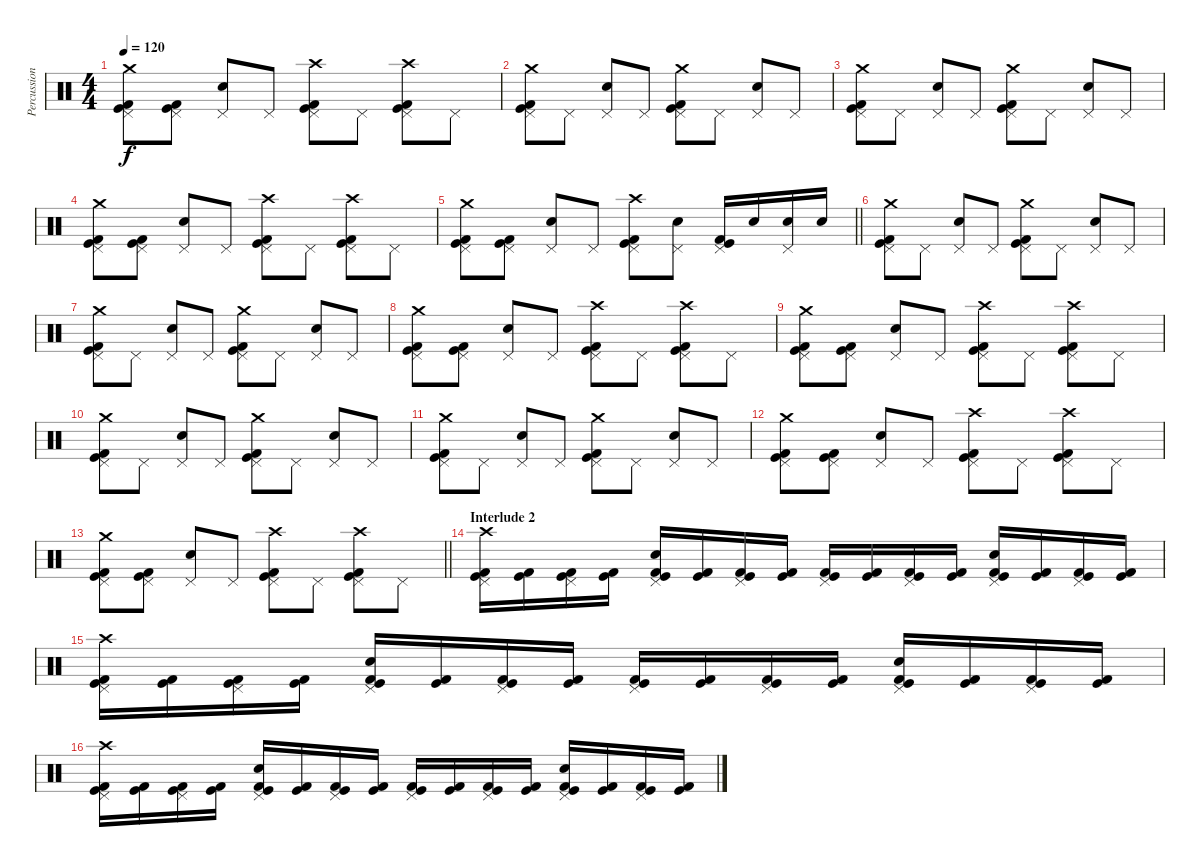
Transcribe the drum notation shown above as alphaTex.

\track ("Percussion" "Percussion") {instrument percussion}
\staff {score}
\articulation defaults
\ts (4 4)
\tempo 120
\clef neutral
\ks c
("Crash medium (hit)" "Pedal Hi-Hat (hit)" "Kick (hit)" "Kick (hit) 2").8{dy f} ("Pedal Hi-Hat (hit)" "Kick (hit)" "Kick (hit) 2").8 ("Pedal Hi-Hat (hit)" "Electric Snare (hit)").8 "Pedal Hi-Hat (hit)".8 ("Crash high (hit)" "Pedal Hi-Hat (hit)" "Kick (hit)" "Kick (hit) 2").8 "Pedal Hi-Hat (hit)".8 ("Crash high (hit)" "Pedal Hi-Hat (hit)" "Kick (hit)" "Kick (hit) 2").8 "Pedal Hi-Hat (hit)".8 |
("Crash medium (hit)" "Pedal Hi-Hat (hit)" "Kick (hit)" "Kick (hit) 2").8 "Pedal Hi-Hat (hit)".8 ("Pedal Hi-Hat (hit)" "Electric Snare (hit)").8 "Pedal Hi-Hat (hit)".8 ("Crash medium (hit)" "Pedal Hi-Hat (hit)" "Kick (hit)" "Kick (hit) 2").8 "Pedal Hi-Hat (hit)".8 ("Pedal Hi-Hat (hit)" "Electric Snare (hit)").8 "Pedal Hi-Hat (hit)".8 |
("Crash medium (hit)" "Pedal Hi-Hat (hit)" "Kick (hit)" "Kick (hit) 2").8 "Pedal Hi-Hat (hit)".8 ("Pedal Hi-Hat (hit)" "Electric Snare (hit)").8 "Pedal Hi-Hat (hit)".8 ("Crash medium (hit)" "Pedal Hi-Hat (hit)" "Kick (hit)" "Kick (hit) 2").8 "Pedal Hi-Hat (hit)".8 ("Pedal Hi-Hat (hit)" "Electric Snare (hit)").8 "Pedal Hi-Hat (hit)".8 |
("Crash medium (hit)" "Pedal Hi-Hat (hit)" "Kick (hit)" "Kick (hit) 2").8 ("Pedal Hi-Hat (hit)" "Kick (hit)" "Kick (hit) 2").8 ("Pedal Hi-Hat (hit)" "Electric Snare (hit)").8 "Pedal Hi-Hat (hit)".8 ("Crash high (hit)" "Pedal Hi-Hat (hit)" "Kick (hit)" "Kick (hit) 2").8 "Pedal Hi-Hat (hit)".8 ("Crash high (hit)" "Pedal Hi-Hat (hit)" "Kick (hit)" "Kick (hit) 2").8 "Pedal Hi-Hat (hit)".8 |
\barLineRight lightlight
("Crash medium (hit)" "Pedal Hi-Hat (hit)" "Kick (hit)" "Kick (hit) 2").8 ("Pedal Hi-Hat (hit)" "Kick (hit)" "Kick (hit) 2").8 ("Pedal Hi-Hat (hit)" "Electric Snare (hit)").8 "Pedal Hi-Hat (hit)".8 ("Crash high (hit)" "Pedal Hi-Hat (hit)" "Kick (hit)" "Kick (hit) 2").8 ("Pedal Hi-Hat (hit)" "Electric Snare (hit)").8 ("Pedal Hi-Hat (hit)" "Kick (hit)" "Kick (hit) 2").16 "Electric Snare (hit)".16 ("Pedal Hi-Hat (hit)" "Electric Snare (hit)").16 "Electric Snare (hit)".16 |
("Crash medium (hit)" "Pedal Hi-Hat (hit)" "Kick (hit)" "Kick (hit) 2").8 "Pedal Hi-Hat (hit)".8 ("Pedal Hi-Hat (hit)" "Electric Snare (hit)").8 "Pedal Hi-Hat (hit)".8 ("Crash medium (hit)" "Pedal Hi-Hat (hit)" "Kick (hit)" "Kick (hit) 2").8 "Pedal Hi-Hat (hit)".8 ("Pedal Hi-Hat (hit)" "Electric Snare (hit)").8 "Pedal Hi-Hat (hit)".8 |
("Crash medium (hit)" "Pedal Hi-Hat (hit)" "Kick (hit)" "Kick (hit) 2").8 "Pedal Hi-Hat (hit)".8 ("Pedal Hi-Hat (hit)" "Electric Snare (hit)").8 "Pedal Hi-Hat (hit)".8 ("Crash medium (hit)" "Pedal Hi-Hat (hit)" "Kick (hit)" "Kick (hit) 2").8 "Pedal Hi-Hat (hit)".8 ("Pedal Hi-Hat (hit)" "Electric Snare (hit)").8 "Pedal Hi-Hat (hit)".8 |
("Crash medium (hit)" "Pedal Hi-Hat (hit)" "Kick (hit)" "Kick (hit) 2").8 ("Pedal Hi-Hat (hit)" "Kick (hit)" "Kick (hit) 2").8 ("Pedal Hi-Hat (hit)" "Electric Snare (hit)").8 "Pedal Hi-Hat (hit)".8 ("Crash high (hit)" "Pedal Hi-Hat (hit)" "Kick (hit)" "Kick (hit) 2").8 "Pedal Hi-Hat (hit)".8 ("Crash high (hit)" "Pedal Hi-Hat (hit)" "Kick (hit)" "Kick (hit) 2").8 "Pedal Hi-Hat (hit)".8 |
("Crash medium (hit)" "Pedal Hi-Hat (hit)" "Kick (hit)" "Kick (hit) 2").8 ("Pedal Hi-Hat (hit)" "Kick (hit)" "Kick (hit) 2").8 ("Pedal Hi-Hat (hit)" "Electric Snare (hit)").8 "Pedal Hi-Hat (hit)".8 ("Crash high (hit)" "Pedal Hi-Hat (hit)" "Kick (hit)" "Kick (hit) 2").8 "Pedal Hi-Hat (hit)".8 ("Crash high (hit)" "Pedal Hi-Hat (hit)" "Kick (hit)" "Kick (hit) 2").8 "Pedal Hi-Hat (hit)".8 |
("Crash medium (hit)" "Pedal Hi-Hat (hit)" "Kick (hit)" "Kick (hit) 2").8 "Pedal Hi-Hat (hit)".8 ("Pedal Hi-Hat (hit)" "Electric Snare (hit)").8 "Pedal Hi-Hat (hit)".8 ("Crash medium (hit)" "Pedal Hi-Hat (hit)" "Kick (hit)" "Kick (hit) 2").8 "Pedal Hi-Hat (hit)".8 ("Pedal Hi-Hat (hit)" "Electric Snare (hit)").8 "Pedal Hi-Hat (hit)".8 |
("Crash medium (hit)" "Pedal Hi-Hat (hit)" "Kick (hit)" "Kick (hit) 2").8 "Pedal Hi-Hat (hit)".8 ("Pedal Hi-Hat (hit)" "Electric Snare (hit)").8 "Pedal Hi-Hat (hit)".8 ("Crash medium (hit)" "Pedal Hi-Hat (hit)" "Kick (hit)" "Kick (hit) 2").8 "Pedal Hi-Hat (hit)".8 ("Pedal Hi-Hat (hit)" "Electric Snare (hit)").8 "Pedal Hi-Hat (hit)".8 |
("Crash medium (hit)" "Pedal Hi-Hat (hit)" "Kick (hit)" "Kick (hit) 2").8 ("Pedal Hi-Hat (hit)" "Kick (hit)" "Kick (hit) 2").8 ("Pedal Hi-Hat (hit)" "Electric Snare (hit)").8 "Pedal Hi-Hat (hit)".8 ("Crash high (hit)" "Pedal Hi-Hat (hit)" "Kick (hit)" "Kick (hit) 2").8 "Pedal Hi-Hat (hit)".8 ("Crash high (hit)" "Pedal Hi-Hat (hit)" "Kick (hit)" "Kick (hit) 2").8 "Pedal Hi-Hat (hit)".8 |
\barLineRight lightlight
("Crash medium (hit)" "Pedal Hi-Hat (hit)" "Kick (hit)" "Kick (hit) 2").8 ("Pedal Hi-Hat (hit)" "Kick (hit)" "Kick (hit) 2").8 ("Pedal Hi-Hat (hit)" "Electric Snare (hit)").8 "Pedal Hi-Hat (hit)".8 ("Crash high (hit)" "Pedal Hi-Hat (hit)" "Kick (hit)" "Kick (hit) 2").8 "Pedal Hi-Hat (hit)".8 ("Crash high (hit)" "Pedal Hi-Hat (hit)" "Kick (hit)" "Kick (hit) 2").8 "Pedal Hi-Hat (hit)".8 |
\section ("" "Interlude 2")
("Pedal Hi-Hat (hit)" "Crash high (hit)" "Kick (hit)" "Kick (hit) 2").16 ("Kick (hit)" "Kick (hit) 2").16 ("Pedal Hi-Hat (hit)" "Kick (hit)" "Kick (hit) 2").16 ("Kick (hit)" "Kick (hit) 2").16 ("Pedal Hi-Hat (hit)" "Electric Snare (hit)" "Kick (hit)" "Kick (hit) 2").16 ("Kick (hit)" "Kick (hit) 2").16 ("Pedal Hi-Hat (hit)" "Kick (hit)" "Kick (hit) 2").16 ("Kick (hit)" "Kick (hit) 2").16 ("Pedal Hi-Hat (hit)" "Kick (hit)" "Kick (hit) 2").16 ("Kick (hit)" "Kick (hit) 2").16 ("Pedal Hi-Hat (hit)" "Kick (hit)" "Kick (hit) 2").16 ("Kick (hit)" "Kick (hit) 2").16 ("Pedal Hi-Hat (hit)" "Electric Snare (hit)" "Kick (hit)" "Kick (hit) 2").16 ("Kick (hit)" "Kick (hit) 2").16 ("Pedal Hi-Hat (hit)" "Kick (hit)" "Kick (hit) 2").16 ("Kick (hit)" "Kick (hit) 2").16 |
("Pedal Hi-Hat (hit)" "Crash high (hit)" "Kick (hit)" "Kick (hit) 2").16 ("Kick (hit)" "Kick (hit) 2").16 ("Pedal Hi-Hat (hit)" "Kick (hit)" "Kick (hit) 2").16 ("Kick (hit)" "Kick (hit) 2").16 ("Pedal Hi-Hat (hit)" "Electric Snare (hit)" "Kick (hit)" "Kick (hit) 2").16 ("Kick (hit)" "Kick (hit) 2").16 ("Pedal Hi-Hat (hit)" "Kick (hit)" "Kick (hit) 2").16 ("Kick (hit)" "Kick (hit) 2").16 ("Pedal Hi-Hat (hit)" "Kick (hit)" "Kick (hit) 2").16 ("Kick (hit)" "Kick (hit) 2").16 ("Pedal Hi-Hat (hit)" "Kick (hit)" "Kick (hit) 2").16 ("Kick (hit)" "Kick (hit) 2").16 ("Pedal Hi-Hat (hit)" "Electric Snare (hit)" "Kick (hit)" "Kick (hit) 2").16 ("Kick (hit)" "Kick (hit) 2").16 ("Pedal Hi-Hat (hit)" "Kick (hit)" "Kick (hit) 2").16 ("Kick (hit)" "Kick (hit) 2").16 |
("Pedal Hi-Hat (hit)" "Crash high (hit)" "Kick (hit)" "Kick (hit) 2").16 ("Kick (hit)" "Kick (hit) 2").16 ("Pedal Hi-Hat (hit)" "Kick (hit)" "Kick (hit) 2").16 ("Kick (hit)" "Kick (hit) 2").16 ("Pedal Hi-Hat (hit)" "Electric Snare (hit)" "Kick (hit)" "Kick (hit) 2").16 ("Kick (hit)" "Kick (hit) 2").16 ("Pedal Hi-Hat (hit)" "Kick (hit)" "Kick (hit) 2").16 ("Kick (hit)" "Kick (hit) 2").16 ("Pedal Hi-Hat (hit)" "Kick (hit)" "Kick (hit) 2").16 ("Kick (hit)" "Kick (hit) 2").16 ("Pedal Hi-Hat (hit)" "Kick (hit)" "Kick (hit) 2").16 ("Kick (hit)" "Kick (hit) 2").16 ("Pedal Hi-Hat (hit)" "Electric Snare (hit)" "Kick (hit)" "Kick (hit) 2").16 ("Kick (hit)" "Kick (hit) 2").16 ("Pedal Hi-Hat (hit)" "Kick (hit)" "Kick (hit) 2").16 ("Kick (hit)" "Kick (hit) 2").16
